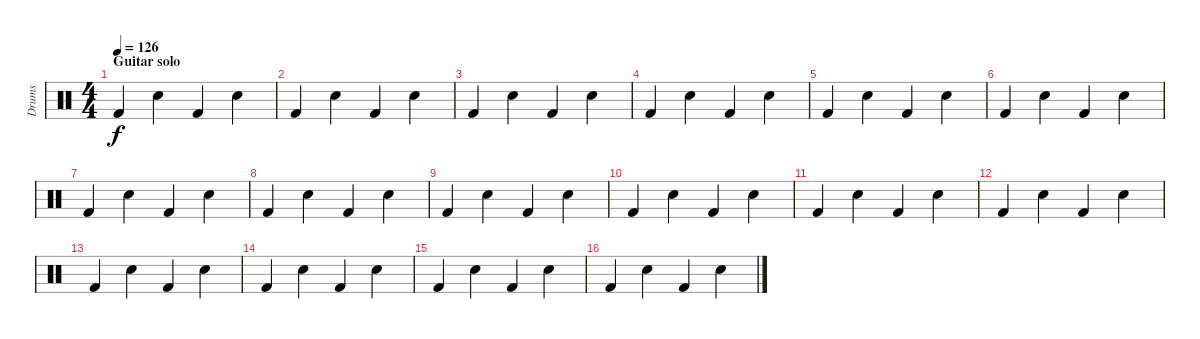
\track ("Drums" "Drums") {instrument percussion}
\staff {score}
\articulation defaults
\ts (4 4)
\section ("" "Guitar solo")
\tempo 126
\clef neutral
\ks c "Kick (hit) 2".4{dy f} "Electric Snare (hit)".4 "Kick (hit) 2".4 "Electric Snare (hit)".4
|
"Kick (hit) 2".4 "Electric Snare (hit)".4 "Kick (hit) 2".4 "Electric Snare (hit)".4 |
"Kick (hit) 2".4 "Electric Snare (hit)".4 "Kick (hit) 2".4 "Electric Snare (hit)".4 |
"Kick (hit) 2".4 "Electric Snare (hit)".4 "Kick (hit) 2".4 "Electric Snare (hit)".4 |
"Kick (hit) 2".4 "Electric Snare (hit)".4 "Kick (hit) 2".4 "Electric Snare (hit)".4 |
"Kick (hit) 2".4 "Electric Snare (hit)".4 "Kick (hit) 2".4 "Electric Snare (hit)".4 |
"Kick (hit) 2".4 "Electric Snare (hit)".4 "Kick (hit) 2".4 "Electric Snare (hit)".4 |
"Kick (hit) 2".4 "Electric Snare (hit)".4 "Kick (hit) 2".4 "Electric Snare (hit)".4 |
"Kick (hit) 2".4 "Electric Snare (hit)".4 "Kick (hit) 2".4 "Electric Snare (hit)".4 |
"Kick (hit) 2".4 "Electric Snare (hit)".4 "Kick (hit) 2".4 "Electric Snare (hit)".4 |
"Kick (hit) 2".4 "Electric Snare (hit)".4 "Kick (hit) 2".4 "Electric Snare (hit)".4 |
"Kick (hit) 2".4 "Electric Snare (hit)".4 "Kick (hit) 2".4 "Electric Snare (hit)".4 |
"Kick (hit) 2".4 "Electric Snare (hit)".4 "Kick (hit) 2".4 "Electric Snare (hit)".4 |
"Kick (hit) 2".4 "Electric Snare (hit)".4 "Kick (hit) 2".4 "Electric Snare (hit)".4 |
"Kick (hit) 2".4 "Electric Snare (hit)".4 "Kick (hit) 2".4 "Electric Snare (hit)".4 |
"Kick (hit) 2".4 "Electric Snare (hit)".4 "Kick (hit) 2".4 "Electric Snare (hit)".4
